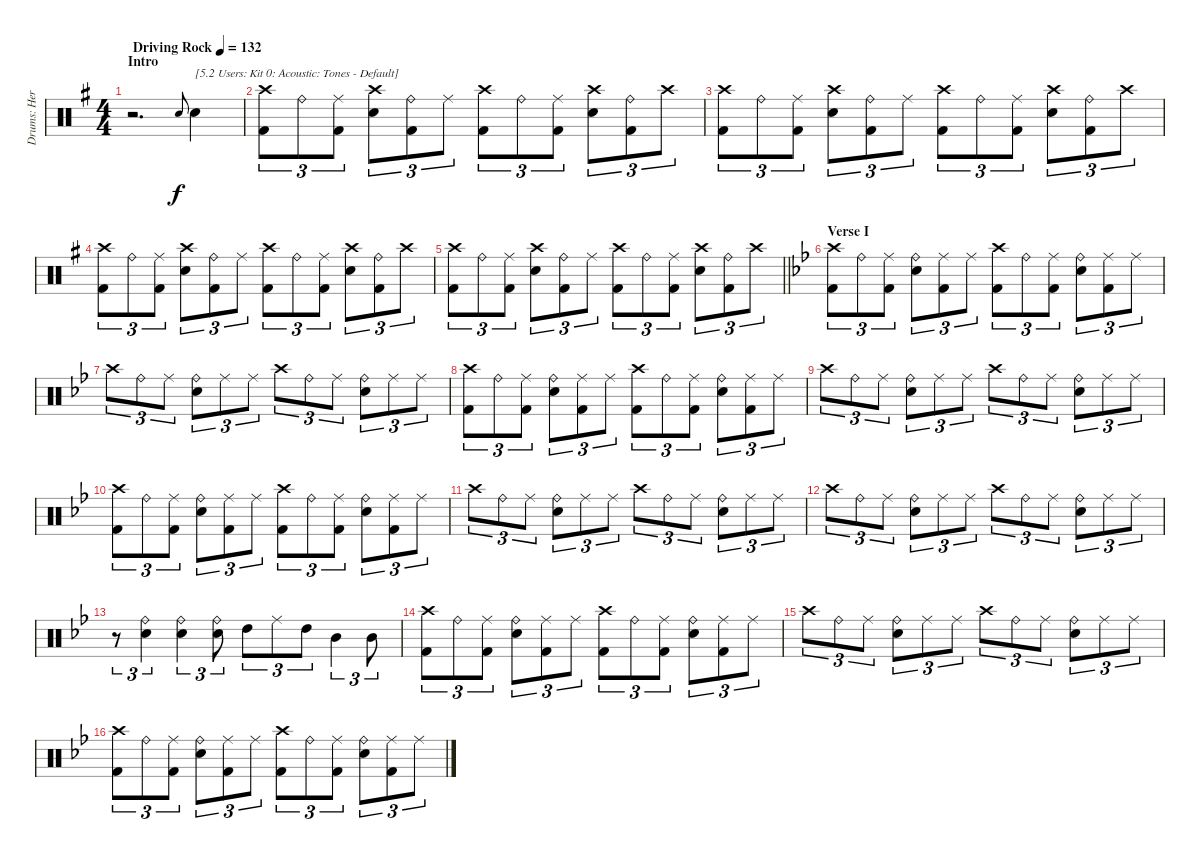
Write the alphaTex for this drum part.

\track ("Drums: Herman" "Drums: Her") {instrument percussion}
\staff {score}
\articulation defaults
\ts (4 4)
\section ("" "Intro")
\tempo (132 "Driving Rock")
\clef neutral
\ks g
r.2{d dy f} "Electric Snare (hit)".8{gr onbeat} "Snare (hit) 2".4{txt "[5.2 Users: Kit 0: Acoustic: Tones - Default]"} |
("Crash high (hit)" "Kick (hit) 2").8{tu (3 2)} "Ride (bell)".8{tu (3 2)} ("Ride (middle)" "Kick (hit) 2").8{tu (3 2)} ("Crash high (hit)" "Snare (hit) 2").8{tu (3 2)} ("Ride (bell)" "Kick (hit) 2").8{tu (3 2)} "Ride (middle)".8{tu (3 2)} ("Crash high (hit)" "Kick (hit) 2").8{tu (3 2)} "Ride (bell)".8{tu (3 2)} ("Ride (middle)" "Kick (hit) 2").8{tu (3 2)} ("Crash high (hit)" "Snare (hit) 2").8{tu (3 2)} ("Ride (bell)" "Kick (hit) 2").8{tu (3 2)} "Crash high (hit)".8{tu (3 2)} |
("Crash high (hit)" "Kick (hit) 2").8{tu (3 2)} "Ride (bell)".8{tu (3 2)} ("Ride (middle)" "Kick (hit) 2").8{tu (3 2)} ("Crash high (hit)" "Snare (hit) 2").8{tu (3 2)} ("Ride (bell)" "Kick (hit) 2").8{tu (3 2)} "Ride (middle)".8{tu (3 2)} ("Crash high (hit)" "Kick (hit) 2").8{tu (3 2)} "Ride (bell)".8{tu (3 2)} ("Ride (middle)" "Kick (hit) 2").8{tu (3 2)} ("Crash high (hit)" "Snare (hit) 2").8{tu (3 2)} ("Ride (bell)" "Kick (hit) 2").8{tu (3 2)} "Crash high (hit)".8{tu (3 2)} |
("Crash high (hit)" "Kick (hit) 2").8{tu (3 2)} "Ride (bell)".8{tu (3 2)} ("Ride (middle)" "Kick (hit) 2").8{tu (3 2)} ("Crash high (hit)" "Snare (hit) 2").8{tu (3 2)} ("Ride (bell)" "Kick (hit) 2").8{tu (3 2)} "Ride (middle)".8{tu (3 2)} ("Crash high (hit)" "Kick (hit) 2").8{tu (3 2)} "Ride (bell)".8{tu (3 2)} ("Ride (middle)" "Kick (hit) 2").8{tu (3 2)} ("Crash high (hit)" "Snare (hit) 2").8{tu (3 2)} ("Ride (bell)" "Kick (hit) 2").8{tu (3 2)} "Crash high (hit)".8{tu (3 2)} |
\barLineRight lightlight
("Crash high (hit)" "Kick (hit) 2").8{tu (3 2)} "Ride (bell)".8{tu (3 2)} ("Ride (middle)" "Kick (hit) 2").8{tu (3 2)} ("Crash high (hit)" "Snare (hit) 2").8{tu (3 2)} ("Ride (bell)" "Kick (hit) 2").8{tu (3 2)} "Ride (middle)".8{tu (3 2)} ("Crash high (hit)" "Kick (hit) 2").8{tu (3 2)} "Ride (bell)".8{tu (3 2)} ("Ride (middle)" "Kick (hit) 2").8{tu (3 2)} ("Crash high (hit)" "Snare (hit) 2").8{tu (3 2)} ("Ride (bell)" "Kick (hit) 2").8{tu (3 2)} "Crash high (hit)".8{tu (3 2)} |
\section ("" "Verse I")
\ks bb
("Crash high (hit)" "Kick (hit) 2").8{tu (3 2)} "Ride (bell)".8{tu (3 2)} ("Ride (middle)" "Kick (hit) 2").8{tu (3 2)} ("Ride (bell)" "Snare (hit) 2").8{tu (3 2)} ("Ride (middle)" "Kick (hit) 2").8{tu (3 2)} "Ride (middle)".8{tu (3 2)} ("Crash high (hit)" "Kick (hit) 2").8{tu (3 2)} "Ride (bell)".8{tu (3 2)} ("Ride (middle)" "Kick (hit) 2").8{tu (3 2)} ("Ride (bell)" "Snare (hit) 2").8{tu (3 2)} ("Ride (middle)" "Kick (hit) 2").8{tu (3 2)} "Ride (middle)".8{tu (3 2)} |
"Crash high (hit)".8{tu (3 2)} "Ride (bell)".8{tu (3 2)} "Ride (middle)".8{tu (3 2)} ("Ride (bell)" "Snare (hit) 2").8{tu (3 2)} "Ride (middle)".8{tu (3 2)} "Ride (middle)".8{tu (3 2)} "Crash high (hit)".8{tu (3 2)} "Ride (bell)".8{tu (3 2)} "Ride (middle)".8{tu (3 2)} ("Ride (bell)" "Snare (hit) 2").8{tu (3 2)} "Ride (middle)".8{tu (3 2)} "Ride (middle)".8{tu (3 2)} |
("Crash high (hit)" "Kick (hit) 2").8{tu (3 2)} "Ride (bell)".8{tu (3 2)} ("Ride (middle)" "Kick (hit) 2").8{tu (3 2)} ("Ride (bell)" "Snare (hit) 2").8{tu (3 2)} ("Ride (middle)" "Kick (hit) 2").8{tu (3 2)} "Ride (middle)".8{tu (3 2)} ("Crash high (hit)" "Kick (hit) 2").8{tu (3 2)} "Ride (bell)".8{tu (3 2)} ("Ride (middle)" "Kick (hit) 2").8{tu (3 2)} ("Ride (bell)" "Snare (hit) 2").8{tu (3 2)} ("Ride (middle)" "Kick (hit) 2").8{tu (3 2)} "Ride (middle)".8{tu (3 2)} |
"Crash high (hit)".8{tu (3 2)} "Ride (bell)".8{tu (3 2)} "Ride (middle)".8{tu (3 2)} ("Ride (bell)" "Snare (hit) 2").8{tu (3 2)} "Ride (middle)".8{tu (3 2)} "Ride (middle)".8{tu (3 2)} "Crash high (hit)".8{tu (3 2)} "Ride (bell)".8{tu (3 2)} "Ride (middle)".8{tu (3 2)} ("Ride (bell)" "Snare (hit) 2").8{tu (3 2)} "Ride (middle)".8{tu (3 2)} "Ride (middle)".8{tu (3 2)} |
("Crash high (hit)" "Kick (hit) 2").8{tu (3 2)} "Ride (bell)".8{tu (3 2)} ("Ride (middle)" "Kick (hit) 2").8{tu (3 2)} ("Ride (bell)" "Snare (hit) 2").8{tu (3 2)} ("Ride (middle)" "Kick (hit) 2").8{tu (3 2)} "Ride (middle)".8{tu (3 2)} ("Crash high (hit)" "Kick (hit) 2").8{tu (3 2)} "Ride (bell)".8{tu (3 2)} ("Ride (middle)" "Kick (hit) 2").8{tu (3 2)} ("Ride (bell)" "Snare (hit) 2").8{tu (3 2)} ("Ride (middle)" "Kick (hit) 2").8{tu (3 2)} "Ride (middle)".8{tu (3 2)} |
"Crash high (hit)".8{tu (3 2)} "Ride (bell)".8{tu (3 2)} "Ride (middle)".8{tu (3 2)} ("Ride (bell)" "Snare (hit) 2").8{tu (3 2)} "Ride (middle)".8{tu (3 2)} "Ride (middle)".8{tu (3 2)} "Crash high (hit)".8{tu (3 2)} "Ride (bell)".8{tu (3 2)} "Ride (middle)".8{tu (3 2)} ("Ride (bell)" "Snare (hit) 2").8{tu (3 2)} "Ride (middle)".8{tu (3 2)} "Ride (middle)".8{tu (3 2)} |
"Crash high (hit)".8{tu (3 2)} "Ride (bell)".8{tu (3 2)} "Ride (middle)".8{tu (3 2)} ("Ride (bell)" "Snare (hit) 2").8{tu (3 2)} "Ride (middle)".8{tu (3 2)} "Ride (middle)".8{tu (3 2)} "Crash high (hit)".8{tu (3 2)} "Ride (bell)".8{tu (3 2)} "Ride (middle)".8{tu (3 2)} ("Ride (bell)" "Snare (hit) 2").8{tu (3 2)} "Ride (middle)".8{tu (3 2)} "Ride (middle)".8{tu (3 2)} |
r.8{tu (3 2)} ("Ride (bell)" "Snare (hit) 2").4{tu (3 2)} ("Ride (bell)" "Snare (hit) 2").4{tu (3 2)} ("Ride (bell)" "Snare (hit) 2").8{tu (3 2)} "High Tom (hit)".8{tu (3 2)} "Ride (middle)".8{tu (3 2)} "High Tom (hit)".8{tu (3 2)} "Mid Tom (hit)".4{tu (3 2)} "Mid Tom (hit)".8{tu (3 2)} |
("Crash high (hit)" "Kick (hit) 2").8{tu (3 2)} "Ride (bell)".8{tu (3 2)} ("Ride (middle)" "Kick (hit) 2").8{tu (3 2)} ("Ride (bell)" "Snare (hit) 2").8{tu (3 2)} ("Ride (middle)" "Kick (hit) 2").8{tu (3 2)} "Ride (middle)".8{tu (3 2)} ("Crash high (hit)" "Kick (hit) 2").8{tu (3 2)} "Ride (bell)".8{tu (3 2)} ("Ride (middle)" "Kick (hit) 2").8{tu (3 2)} ("Ride (bell)" "Snare (hit) 2").8{tu (3 2)} ("Ride (middle)" "Kick (hit) 2").8{tu (3 2)} "Ride (middle)".8{tu (3 2)} |
"Crash high (hit)".8{tu (3 2)} "Ride (bell)".8{tu (3 2)} "Ride (middle)".8{tu (3 2)} ("Ride (bell)" "Snare (hit) 2").8{tu (3 2)} "Ride (middle)".8{tu (3 2)} "Ride (middle)".8{tu (3 2)} "Crash high (hit)".8{tu (3 2)} "Ride (bell)".8{tu (3 2)} "Ride (middle)".8{tu (3 2)} ("Ride (bell)" "Snare (hit) 2").8{tu (3 2)} "Ride (middle)".8{tu (3 2)} "Ride (middle)".8{tu (3 2)} |
("Crash high (hit)" "Kick (hit) 2").8{tu (3 2)} "Ride (bell)".8{tu (3 2)} ("Ride (middle)" "Kick (hit) 2").8{tu (3 2)} ("Ride (bell)" "Snare (hit) 2").8{tu (3 2)} ("Ride (middle)" "Kick (hit) 2").8{tu (3 2)} "Ride (middle)".8{tu (3 2)} ("Crash high (hit)" "Kick (hit) 2").8{tu (3 2)} "Ride (bell)".8{tu (3 2)} ("Ride (middle)" "Kick (hit) 2").8{tu (3 2)} ("Ride (bell)" "Snare (hit) 2").8{tu (3 2)} ("Ride (middle)" "Kick (hit) 2").8{tu (3 2)} "Ride (middle)".8{tu (3 2)}
